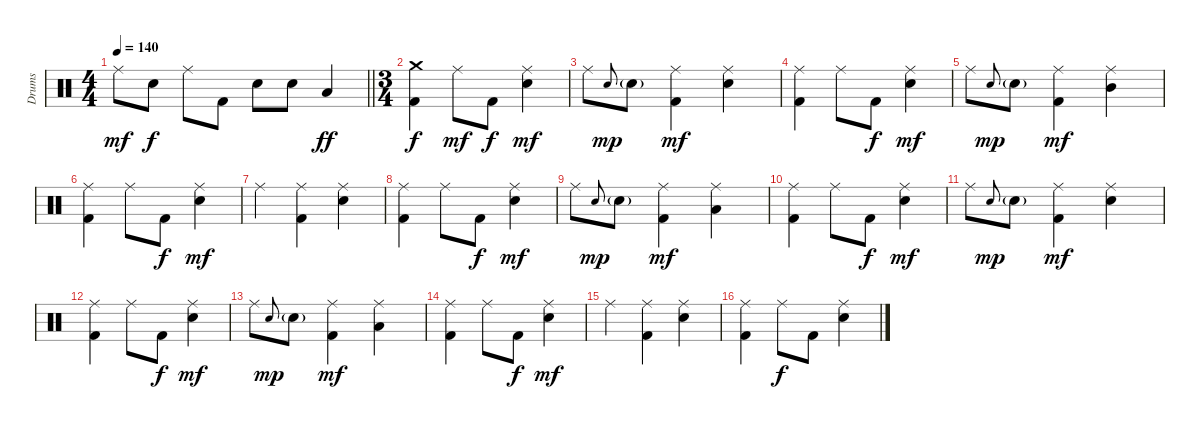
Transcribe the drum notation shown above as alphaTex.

\track ("Drums" "Drums") {instrument percussion}
\staff {score}
\articulation defaults
\ts (4 4)
\tempo 140
\clef neutral
\barLineRight lightlight
\ks c "Ride (middle)".8{dy mf} "Snare (hit) 2".8{dy f} "Ride (middle)".8 "Kick (hit) 2".8 "Snare (hit) 2".8 "Snare (hit) 2".8 "Low Tom (hit)".4{dy ff}
|
\ts (3 4)
("Crash medium (hit)" "Kick (hit) 2").4{dy f} "Ride (middle)".8{dy mf} "Kick (hit) 2".8{dy f} ("Ride (middle)" "Snare (hit) 2").4{dy mf} |
"Ride (middle)".8 "Snare (hit) 2".8{gr onbeat dy mp} "Snare (hit) 2"{g}.8 ("Ride (middle)" "Kick (hit) 2").4{dy mf} ("Ride (middle)" "Snare (hit) 2").4 |
("Ride (middle)" "Kick (hit) 2").4 "Ride (middle)".8 "Kick (hit) 2".8{dy f} ("Ride (middle)" "Snare (hit) 2").4{dy mf} |
"Ride (middle)".8 "Snare (hit) 2".8{gr onbeat dy mp} "Snare (hit) 2"{g}.8 ("Ride (middle)" "Kick (hit) 2").4{dy mf} ("Ride (middle)" "Mid Tom (hit)").4 |
("Ride (middle)" "Kick (hit) 2").4 "Ride (middle)".8 "Kick (hit) 2".8{dy f} ("Ride (middle)" "Snare (hit) 2").4{dy mf} |
"Ride (middle)".4 ("Ride (middle)" "Kick (hit) 2").4 ("Ride (middle)" "Snare (hit) 2").4 |
("Ride (middle)" "Kick (hit) 2").4 "Ride (middle)".8 "Kick (hit) 2".8{dy f} ("Ride (middle)" "Snare (hit) 2").4{dy mf} |
"Ride (middle)".8 "Snare (hit) 2".8{gr onbeat dy mp} "Snare (hit) 2"{g}.8 ("Ride (middle)" "Kick (hit) 2").4{dy mf} ("Ride (middle)" "Low Tom (hit)").4 |
("Ride (middle)" "Kick (hit) 2").4 "Ride (middle)".8 "Kick (hit) 2".8{dy f} ("Ride (middle)" "Snare (hit) 2").4{dy mf} |
"Ride (middle)".8 "Snare (hit) 2".8{gr onbeat dy mp} "Snare (hit) 2"{g}.8 ("Ride (middle)" "Kick (hit) 2").4{dy mf} ("Ride (middle)" "Snare (hit) 2").4 |
("Ride (middle)" "Kick (hit) 2").4 "Ride (middle)".8 "Kick (hit) 2".8{dy f} ("Ride (middle)" "Snare (hit) 2").4{dy mf} |
"Ride (middle)".8 "Snare (hit) 2".8{gr onbeat dy mp} "Snare (hit) 2"{g}.8 ("Ride (middle)" "Kick (hit) 2").4{dy mf} ("Ride (middle)" "Low Tom (hit)").4 |
("Ride (middle)" "Kick (hit) 2").4 "Ride (middle)".8 "Kick (hit) 2".8{dy f} ("Ride (middle)" "Snare (hit) 2").4{dy mf} |
"Ride (middle)".4 ("Ride (middle)" "Kick (hit) 2").4 ("Ride (middle)" "Snare (hit) 2").4 |
("Ride (middle)" "Kick (hit) 2").4 "Ride (middle)".8{dy f} "Kick (hit) 2".8 ("Ride (middle)" "Snare (hit) 2").4
